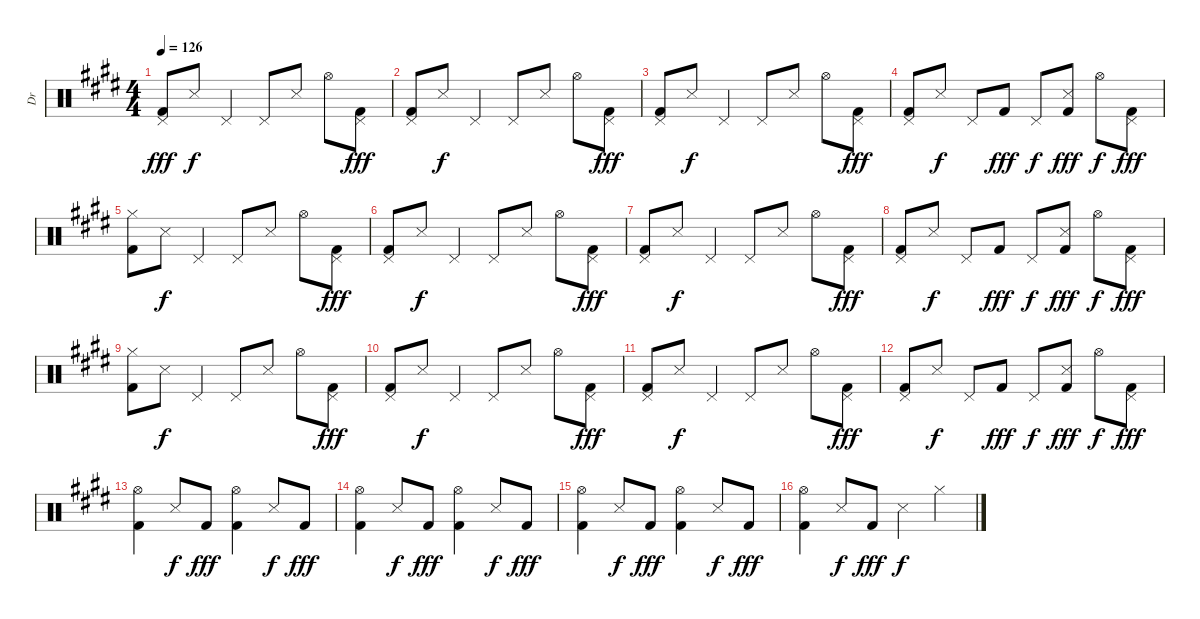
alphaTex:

\track ("Dr" "Dr") {instrument percussion}
\staff {score}
\articulation defaults
\ts (4 4)
\tempo 126
\clef neutral
\ks e
("Pedal Hi-Hat (hit)" "Kick (hit) 2").8{dy fff} "Snare (side stick) 3".8{dy f} "Pedal Hi-Hat (hit)".4 "Pedal Hi-Hat (hit)".8 "Snare (side stick) 3".8 "Hi-Hat (open)".8 ("Pedal Hi-Hat (hit)" "Kick (hit) 2").8{dy fff} |
("Pedal Hi-Hat (hit)" "Kick (hit) 2").8 "Snare (side stick) 3".8{dy f} "Pedal Hi-Hat (hit)".4 "Pedal Hi-Hat (hit)".8 "Snare (side stick) 3".8 "Hi-Hat (open)".8 ("Pedal Hi-Hat (hit)" "Kick (hit) 2").8{dy fff} |
("Pedal Hi-Hat (hit)" "Kick (hit) 2").8 "Snare (side stick) 3".8{dy f} "Pedal Hi-Hat (hit)".4 "Pedal Hi-Hat (hit)".8 "Snare (side stick) 3".8 "Hi-Hat (open)".8 ("Pedal Hi-Hat (hit)" "Kick (hit) 2").8{dy fff} |
("Pedal Hi-Hat (hit)" "Kick (hit) 2").8 "Snare (side stick) 3".8{dy f} "Pedal Hi-Hat (hit)".8 "Kick (hit) 2".8{dy fff} "Pedal Hi-Hat (hit)".8{dy f} ("Snare (side stick) 3" "Kick (hit) 2").8{dy fff} "Hi-Hat (open)".8{dy f} ("Pedal Hi-Hat (hit)" "Kick (hit) 2").8{dy fff} |
("Hi-Hat (closed)" "Kick (hit) 2").8 "Snare (side stick) 3".8{dy f} "Pedal Hi-Hat (hit)".4 "Pedal Hi-Hat (hit)".8 "Snare (side stick) 3".8 "Hi-Hat (open)".8 ("Pedal Hi-Hat (hit)" "Kick (hit) 2").8{dy fff} |
("Pedal Hi-Hat (hit)" "Kick (hit) 2").8 "Snare (side stick) 3".8{dy f} "Pedal Hi-Hat (hit)".4 "Pedal Hi-Hat (hit)".8 "Snare (side stick) 3".8 "Hi-Hat (open)".8 ("Pedal Hi-Hat (hit)" "Kick (hit) 2").8{dy fff} |
("Pedal Hi-Hat (hit)" "Kick (hit) 2").8 "Snare (side stick) 3".8{dy f} "Pedal Hi-Hat (hit)".4 "Pedal Hi-Hat (hit)".8 "Snare (side stick) 3".8 "Hi-Hat (open)".8 ("Pedal Hi-Hat (hit)" "Kick (hit) 2").8{dy fff} |
("Pedal Hi-Hat (hit)" "Kick (hit) 2").8 "Snare (side stick) 3".8{dy f} "Pedal Hi-Hat (hit)".8 "Kick (hit) 2".8{dy fff} "Pedal Hi-Hat (hit)".8{dy f} ("Snare (side stick) 3" "Kick (hit) 2").8{dy fff} "Hi-Hat (open)".8{dy f} ("Pedal Hi-Hat (hit)" "Kick (hit) 2").8{dy fff} |
("Hi-Hat (closed)" "Kick (hit) 2").8 "Snare (side stick) 3".8{dy f} "Pedal Hi-Hat (hit)".4 "Pedal Hi-Hat (hit)".8 "Snare (side stick) 3".8 "Hi-Hat (open)".8 ("Pedal Hi-Hat (hit)" "Kick (hit) 2").8{dy fff} |
("Pedal Hi-Hat (hit)" "Kick (hit) 2").8 "Snare (side stick) 3".8{dy f} "Pedal Hi-Hat (hit)".4 "Pedal Hi-Hat (hit)".8 "Snare (side stick) 3".8 "Hi-Hat (open)".8 ("Pedal Hi-Hat (hit)" "Kick (hit) 2").8{dy fff} |
("Pedal Hi-Hat (hit)" "Kick (hit) 2").8 "Snare (side stick) 3".8{dy f} "Pedal Hi-Hat (hit)".4 "Pedal Hi-Hat (hit)".8 "Snare (side stick) 3".8 "Hi-Hat (open)".8 ("Pedal Hi-Hat (hit)" "Kick (hit) 2").8{dy fff} |
("Pedal Hi-Hat (hit)" "Kick (hit) 2").8 "Snare (side stick) 3".8{dy f} "Pedal Hi-Hat (hit)".8 "Kick (hit) 2".8{dy fff} "Pedal Hi-Hat (hit)".8{dy f} ("Snare (side stick) 3" "Kick (hit) 2").8{dy fff} "Hi-Hat (open)".8{dy f} ("Pedal Hi-Hat (hit)" "Kick (hit) 2").8{dy fff} |
("Hi-Hat (open)" "Kick (hit) 2").4 "Snare (side stick) 3".8{dy f} "Kick (hit) 2".8{dy fff} ("Hi-Hat (open)" "Kick (hit) 2").4 "Snare (side stick) 3".8{dy f} "Kick (hit) 2".8{dy fff} |
("Hi-Hat (open)" "Kick (hit) 2").4 "Snare (side stick) 3".8{dy f} "Kick (hit) 2".8{dy fff} ("Hi-Hat (open)" "Kick (hit) 2").4 "Snare (side stick) 3".8{dy f} "Kick (hit) 2".8{dy fff} |
("Hi-Hat (open)" "Kick (hit) 2").4 "Snare (side stick) 3".8{dy f} "Kick (hit) 2".8{dy fff} ("Hi-Hat (open)" "Kick (hit) 2").4 "Snare (side stick) 3".8{dy f} "Kick (hit) 2".8{dy fff} |
("Hi-Hat (open)" "Kick (hit) 2").4 "Snare (side stick) 3".8{dy f} "Kick (hit) 2".8{dy fff} "Snare (side stick) 3".4{dy f} "Hi-Hat (closed)".4
